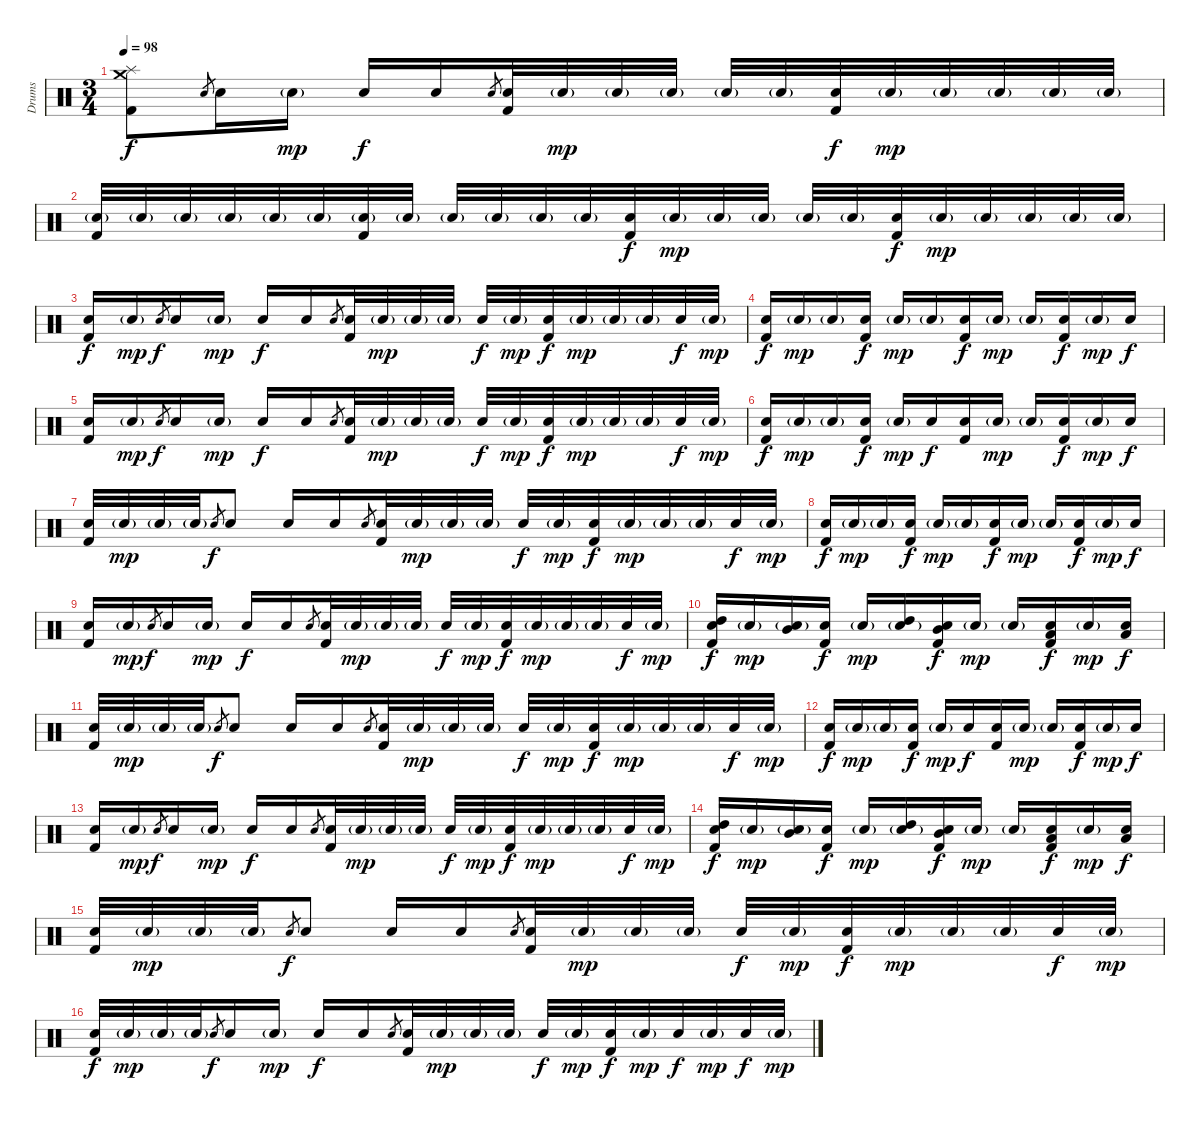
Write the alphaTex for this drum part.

\track ("Drums" "Drums") {instrument percussion}
\staff {score}
\articulation defaults
\ts (3 4)
\tempo 98
\clef neutral
\ks c
("Crash medium (hit)" "Splash (hit)" "Kick (hit) 2").8{dy f} "Electric Snare (hit)".8{gr} "Electric Snare (hit)".16 "Electric Snare (hit)"{g}.16{dy mp} "Electric Snare (hit)".16{dy f} "Electric Snare (hit)".16 "Electric Snare (hit)".8{gr} ("Electric Snare (hit)" "Kick (hit) 2").32 "Electric Snare (hit)"{g}.32{dy mp} "Electric Snare (hit)"{g}.32 "Electric Snare (hit)"{g}.32 "Electric Snare (hit)"{g}.32 "Electric Snare (hit)"{g}.32 ("Electric Snare (hit)" "Kick (hit) 2").32{dy f} "Electric Snare (hit)"{g}.32{dy mp} "Electric Snare (hit)"{g}.32 "Electric Snare (hit)"{g}.32 "Electric Snare (hit)"{g}.32 "Electric Snare (hit)"{g}.32 |
("Electric Snare (hit)"{g} "Kick (hit) 2").32 "Electric Snare (hit)"{g}.32 "Electric Snare (hit)"{g}.32 "Electric Snare (hit)"{g}.32 "Electric Snare (hit)"{g}.32 "Electric Snare (hit)"{g}.32 ("Electric Snare (hit)"{g} "Kick (hit) 2").32 "Electric Snare (hit)"{g}.32 "Electric Snare (hit)"{g}.32 "Electric Snare (hit)"{g}.32 "Electric Snare (hit)"{g}.32 "Electric Snare (hit)"{g}.32 ("Electric Snare (hit)" "Kick (hit) 2").32{dy f} "Electric Snare (hit)"{g}.32{dy mp} "Electric Snare (hit)"{g}.32 "Electric Snare (hit)"{g}.32 "Electric Snare (hit)"{g}.32 "Electric Snare (hit)"{g}.32 ("Electric Snare (hit)" "Kick (hit) 2").32{dy f} "Electric Snare (hit)"{g}.32{dy mp} "Electric Snare (hit)"{g}.32 "Electric Snare (hit)"{g}.32 "Electric Snare (hit)"{g}.32 "Electric Snare (hit)"{g}.32 |
("Electric Snare (hit)" "Kick (hit) 2").16{dy f} "Electric Snare (hit)"{g}.16{dy mp} "Electric Snare (hit)".8{gr dy f} "Electric Snare (hit)".16 "Electric Snare (hit)"{g}.16{dy mp} "Electric Snare (hit)".16{dy f} "Electric Snare (hit)".16 "Electric Snare (hit)".8{gr} ("Electric Snare (hit)" "Kick (hit) 2").32 "Electric Snare (hit)"{g}.32{dy mp} "Electric Snare (hit)"{g}.32 "Electric Snare (hit)"{g}.32 "Electric Snare (hit)".32{dy f} "Electric Snare (hit)"{g}.32{dy mp} ("Electric Snare (hit)" "Kick (hit) 2").32{dy f} "Electric Snare (hit)"{g}.32{dy mp} "Electric Snare (hit)"{g}.32 "Electric Snare (hit)"{g}.32 "Electric Snare (hit)".32{dy f} "Electric Snare (hit)"{g}.32{dy mp} |
("Electric Snare (hit)" "Kick (hit) 2").16{dy f} "Electric Snare (hit)"{g}.16{dy mp} "Electric Snare (hit)"{g}.16 ("Electric Snare (hit)" "Kick (hit) 2").16{dy f} "Electric Snare (hit)"{g}.16{dy mp} "Electric Snare (hit)"{g}.16 ("Electric Snare (hit)" "Kick (hit) 2").16{dy f} "Electric Snare (hit)"{g}.16{dy mp} "Electric Snare (hit)"{g}.16 ("Electric Snare (hit)" "Kick (hit) 2").16{dy f} "Electric Snare (hit)"{g}.16{dy mp} "Electric Snare (hit)".16{dy f} |
("Electric Snare (hit)" "Kick (hit) 2").16 "Electric Snare (hit)"{g}.16{dy mp} "Electric Snare (hit)".8{gr dy f} "Electric Snare (hit)".16 "Electric Snare (hit)"{g}.16{dy mp} "Electric Snare (hit)".16{dy f} "Electric Snare (hit)".16 "Electric Snare (hit)".8{gr} ("Electric Snare (hit)" "Kick (hit) 2").32 "Electric Snare (hit)"{g}.32{dy mp} "Electric Snare (hit)"{g}.32 "Electric Snare (hit)"{g}.32 "Electric Snare (hit)".32{dy f} "Electric Snare (hit)"{g}.32{dy mp} ("Electric Snare (hit)" "Kick (hit) 2").32{dy f} "Electric Snare (hit)"{g}.32{dy mp} "Electric Snare (hit)"{g}.32 "Electric Snare (hit)"{g}.32 "Electric Snare (hit)".32{dy f} "Electric Snare (hit)"{g}.32{dy mp} |
("Electric Snare (hit)" "Kick (hit) 2").16{dy f} "Electric Snare (hit)"{g}.16{dy mp} "Electric Snare (hit)"{g}.16 ("Electric Snare (hit)" "Kick (hit) 2").16{dy f} "Electric Snare (hit)"{g}.16{dy mp} "Electric Snare (hit)".16{dy f} ("Electric Snare (hit)" "Kick (hit) 2").16 "Electric Snare (hit)"{g}.16{dy mp} "Electric Snare (hit)"{g}.16 ("Electric Snare (hit)" "Kick (hit) 2").16{dy f} "Electric Snare (hit)"{g}.16{dy mp} "Electric Snare (hit)".16{dy f} |
("Electric Snare (hit)" "Kick (hit) 2").32 "Electric Snare (hit)"{g}.32{dy mp} "Electric Snare (hit)"{g}.32 "Electric Snare (hit)"{g}.32 "Electric Snare (hit)".8{gr dy f} "Electric Snare (hit)".8 "Electric Snare (hit)".16 "Electric Snare (hit)".16 "Electric Snare (hit)".8{gr} ("Electric Snare (hit)" "Kick (hit) 2").32 "Electric Snare (hit)"{g}.32{dy mp} "Electric Snare (hit)"{g}.32 "Electric Snare (hit)"{g}.32 "Electric Snare (hit)".32{dy f} "Electric Snare (hit)"{g}.32{dy mp} ("Electric Snare (hit)" "Kick (hit) 2").32{dy f} "Electric Snare (hit)"{g}.32{dy mp} "Electric Snare (hit)"{g}.32 "Electric Snare (hit)"{g}.32 "Electric Snare (hit)".32{dy f} "Electric Snare (hit)"{g}.32{dy mp} |
("Electric Snare (hit)" "Kick (hit) 2").16{dy f} "Electric Snare (hit)"{g}.16{dy mp} "Electric Snare (hit)"{g}.16 ("Electric Snare (hit)" "Kick (hit) 2").16{dy f} "Electric Snare (hit)"{g}.16{dy mp} "Electric Snare (hit)"{g}.16 ("Electric Snare (hit)" "Kick (hit) 2").16{dy f} "Electric Snare (hit)"{g}.16{dy mp} "Electric Snare (hit)"{g}.16 ("Electric Snare (hit)" "Kick (hit) 2").16{dy f} "Electric Snare (hit)"{g}.16{dy mp} "Electric Snare (hit)".16{dy f} |
("Electric Snare (hit)" "Kick (hit) 2").16 "Electric Snare (hit)"{g}.16{dy mp} "Electric Snare (hit)".8{gr dy f} "Electric Snare (hit)".16 "Electric Snare (hit)"{g}.16{dy mp} "Electric Snare (hit)".16{dy f} "Electric Snare (hit)".16 "Electric Snare (hit)".8{gr} ("Electric Snare (hit)" "Kick (hit) 2").32 "Electric Snare (hit)"{g}.32{dy mp} "Electric Snare (hit)"{g}.32 "Electric Snare (hit)"{g}.32 "Electric Snare (hit)".32{dy f} "Electric Snare (hit)"{g}.32{dy mp} ("Electric Snare (hit)" "Kick (hit) 2").32{dy f} "Electric Snare (hit)"{g}.32{dy mp} "Electric Snare (hit)"{g}.32 "Electric Snare (hit)"{g}.32 "Electric Snare (hit)".32{dy f} "Electric Snare (hit)"{g}.32{dy mp} |
("High Tom (hit)" "Electric Snare (hit)" "Kick (hit) 2").16{dy f} "Electric Snare (hit)"{g}.16{dy mp} ("Mid Tom (hit)" "Electric Snare (hit)"{g}).16 ("Electric Snare (hit)" "Kick (hit) 2").16{dy f} "Electric Snare (hit)"{g}.16{dy mp} ("High Tom (hit)" "Electric Snare (hit)"{g}).16 ("Mid Tom (hit)" "Electric Snare (hit)" "Kick (hit) 2").16{dy f} "Electric Snare (hit)"{g}.16{dy mp} "Electric Snare (hit)"{g}.16 ("Low Floor Tom (hit)" "Electric Snare (hit)" "Kick (hit) 2").16{dy f} "Electric Snare (hit)"{g}.16{dy mp} ("Low Floor Tom (hit)" "Electric Snare (hit)").16{dy f} |
("Electric Snare (hit)" "Kick (hit) 2").32 "Electric Snare (hit)"{g}.32{dy mp} "Electric Snare (hit)"{g}.32 "Electric Snare (hit)"{g}.32 "Electric Snare (hit)".8{gr dy f} "Electric Snare (hit)".8 "Electric Snare (hit)".16 "Electric Snare (hit)".16 "Electric Snare (hit)".8{gr} ("Electric Snare (hit)" "Kick (hit) 2").32 "Electric Snare (hit)"{g}.32{dy mp} "Electric Snare (hit)"{g}.32 "Electric Snare (hit)"{g}.32 "Electric Snare (hit)".32{dy f} "Electric Snare (hit)"{g}.32{dy mp} ("Electric Snare (hit)" "Kick (hit) 2").32{dy f} "Electric Snare (hit)"{g}.32{dy mp} "Electric Snare (hit)"{g}.32 "Electric Snare (hit)"{g}.32 "Electric Snare (hit)".32{dy f} "Electric Snare (hit)"{g}.32{dy mp} |
("Electric Snare (hit)" "Kick (hit) 2").16{dy f} "Electric Snare (hit)"{g}.16{dy mp} "Electric Snare (hit)"{g}.16 ("Electric Snare (hit)" "Kick (hit) 2").16{dy f} "Electric Snare (hit)"{g}.16{dy mp} "Electric Snare (hit)".16{dy f} ("Electric Snare (hit)" "Kick (hit) 2").16 "Electric Snare (hit)"{g}.16{dy mp} "Electric Snare (hit)"{g}.16 ("Electric Snare (hit)" "Kick (hit) 2").16{dy f} "Electric Snare (hit)"{g}.16{dy mp} "Electric Snare (hit)".16{dy f} |
("Electric Snare (hit)" "Kick (hit) 2").16 "Electric Snare (hit)"{g}.16{dy mp} "Electric Snare (hit)".8{gr dy f} "Electric Snare (hit)".16 "Electric Snare (hit)"{g}.16{dy mp} "Electric Snare (hit)".16{dy f} "Electric Snare (hit)".16 "Electric Snare (hit)".8{gr} ("Electric Snare (hit)" "Kick (hit) 2").32 "Electric Snare (hit)"{g}.32{dy mp} "Electric Snare (hit)"{g}.32 "Electric Snare (hit)"{g}.32 "Electric Snare (hit)".32{dy f} "Electric Snare (hit)"{g}.32{dy mp} ("Electric Snare (hit)" "Kick (hit) 2").32{dy f} "Electric Snare (hit)"{g}.32{dy mp} "Electric Snare (hit)"{g}.32 "Electric Snare (hit)"{g}.32 "Electric Snare (hit)".32{dy f} "Electric Snare (hit)"{g}.32{dy mp} |
("High Tom (hit)" "Electric Snare (hit)" "Kick (hit) 2").16{dy f} "Electric Snare (hit)"{g}.16{dy mp} ("Mid Tom (hit)" "Electric Snare (hit)"{g}).16 ("Electric Snare (hit)" "Kick (hit) 2").16{dy f} "Electric Snare (hit)"{g}.16{dy mp} ("High Tom (hit)" "Electric Snare (hit)"{g}).16 ("Mid Tom (hit)" "Electric Snare (hit)" "Kick (hit) 2").16{dy f} "Electric Snare (hit)"{g}.16{dy mp} "Electric Snare (hit)"{g}.16 ("Low Floor Tom (hit)" "Electric Snare (hit)" "Kick (hit) 2").16{dy f} "Electric Snare (hit)"{g}.16{dy mp} ("Low Floor Tom (hit)" "Electric Snare (hit)").16{dy f} |
("Electric Snare (hit)" "Kick (hit) 2").32 "Electric Snare (hit)"{g}.32{dy mp} "Electric Snare (hit)"{g}.32 "Electric Snare (hit)"{g}.32 "Electric Snare (hit)".8{gr dy f} "Electric Snare (hit)".8 "Electric Snare (hit)".16 "Electric Snare (hit)".16 "Electric Snare (hit)".8{gr} ("Electric Snare (hit)" "Kick (hit) 2").32 "Electric Snare (hit)"{g}.32{dy mp} "Electric Snare (hit)"{g}.32 "Electric Snare (hit)"{g}.32 "Electric Snare (hit)".32{dy f} "Electric Snare (hit)"{g}.32{dy mp} ("Electric Snare (hit)" "Kick (hit) 2").32{dy f} "Electric Snare (hit)"{g}.32{dy mp} "Electric Snare (hit)"{g}.32 "Electric Snare (hit)"{g}.32 "Electric Snare (hit)".32{dy f} "Electric Snare (hit)"{g}.32{dy mp} |
("Electric Snare (hit)" "Kick (hit) 2").32{dy f} "Electric Snare (hit)"{g}.32{dy mp} "Electric Snare (hit)"{g}.32 "Electric Snare (hit)"{g}.32 "Electric Snare (hit)".8{gr dy f} "Electric Snare (hit)".16 "Electric Snare (hit)"{g}.16{dy mp} "Electric Snare (hit)".16{dy f} "Electric Snare (hit)".16 "Electric Snare (hit)".8{gr} ("Electric Snare (hit)" "Kick (hit) 2").32 "Electric Snare (hit)"{g}.32{dy mp} "Electric Snare (hit)"{g}.32 "Electric Snare (hit)"{g}.32 "Electric Snare (hit)".32{dy f} "Electric Snare (hit)"{g}.32{dy mp} ("Electric Snare (hit)" "Kick (hit) 2").32{dy f} "Electric Snare (hit)"{g}.32{dy mp} "Electric Snare (hit)".32{dy f} "Electric Snare (hit)"{g}.32{dy mp} "Electric Snare (hit)".32{dy f} "Electric Snare (hit)"{g}.32{dy mp}
